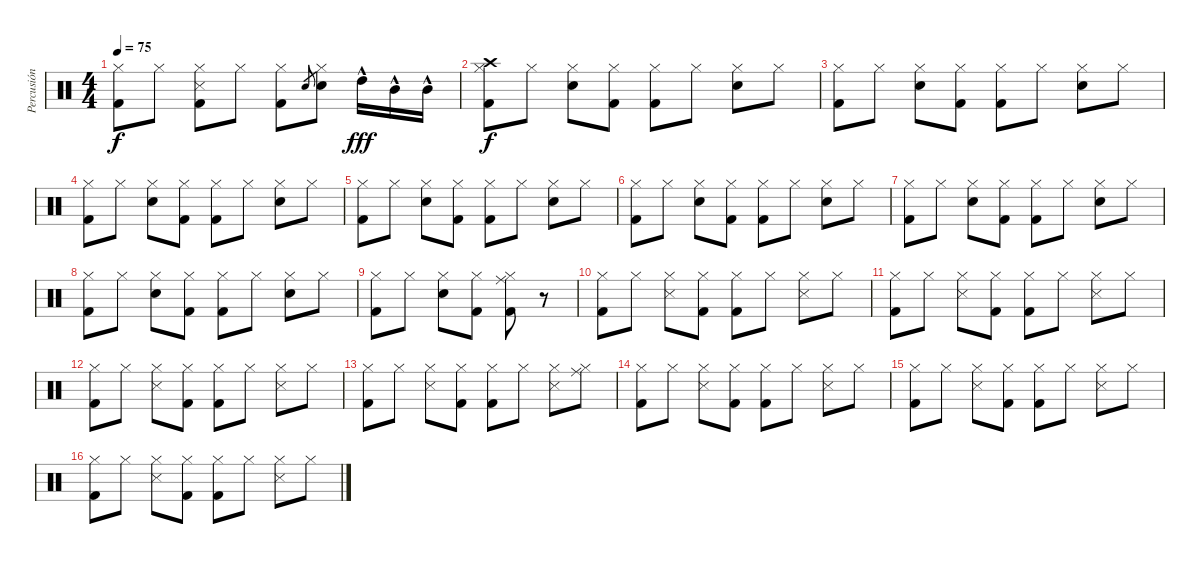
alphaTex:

\track ("Percusión" "Percusión") {instrument percussion}
\staff {score}
\articulation defaults
\ts (4 4)
\tempo 75
\clef neutral
\ks c
("Hi-Hat (closed)" "Kick (hit) 2").8{dy f} "Hi-Hat (closed)".8 ("Hi-Hat (closed)" "Snare (side stick) 3" "Kick (hit) 2").8 "Hi-Hat (closed)".8 ("Hi-Hat (closed)" "Kick (hit) 2").8 "Electric Snare (hit)".8{gr} ("Hi-Hat (closed)" "Electric Snare (hit)").8 "High Tom (hit)"{hac}.16{dy fff} "Mid Tom (hit)"{hac}.16 "Mid Tom (hit)"{hac}.16 |
("Hi-Hat (closed)" "Kick (hit) 2" "Crash high (hit)").8{dy f} "Hi-Hat (closed)".8 ("Hi-Hat (closed)" "Electric Snare (hit)").8 ("Hi-Hat (closed)" "Kick (hit) 2").8 ("Hi-Hat (closed)" "Kick (hit) 2").8 "Hi-Hat (closed)".8 ("Hi-Hat (closed)" "Electric Snare (hit)").8 "Hi-Hat (closed)".8 |
("Hi-Hat (closed)" "Kick (hit) 2").8 "Hi-Hat (closed)".8 ("Hi-Hat (closed)" "Electric Snare (hit)").8 ("Hi-Hat (closed)" "Kick (hit) 2").8 ("Hi-Hat (closed)" "Kick (hit) 2").8 "Hi-Hat (closed)".8 ("Hi-Hat (closed)" "Electric Snare (hit)").8 "Hi-Hat (closed)".8 |
("Hi-Hat (closed)" "Kick (hit) 2").8 "Hi-Hat (closed)".8 ("Hi-Hat (closed)" "Electric Snare (hit)").8 ("Hi-Hat (closed)" "Kick (hit) 2").8 ("Hi-Hat (closed)" "Kick (hit) 2").8 "Hi-Hat (closed)".8 ("Hi-Hat (closed)" "Electric Snare (hit)").8 "Hi-Hat (closed)".8 |
("Hi-Hat (closed)" "Kick (hit) 2").8 "Hi-Hat (closed)".8 ("Hi-Hat (closed)" "Electric Snare (hit)").8 ("Hi-Hat (closed)" "Kick (hit) 2").8 ("Hi-Hat (closed)" "Kick (hit) 2").8 "Hi-Hat (closed)".8 ("Hi-Hat (closed)" "Electric Snare (hit)").8 "Hi-Hat (closed)".8 |
("Hi-Hat (closed)" "Kick (hit) 2").8 "Hi-Hat (closed)".8 ("Hi-Hat (closed)" "Electric Snare (hit)").8 ("Hi-Hat (closed)" "Kick (hit) 2").8 ("Hi-Hat (closed)" "Kick (hit) 2").8 "Hi-Hat (closed)".8 ("Hi-Hat (closed)" "Electric Snare (hit)").8 "Hi-Hat (closed)".8 |
("Hi-Hat (closed)" "Kick (hit) 2").8 "Hi-Hat (closed)".8 ("Hi-Hat (closed)" "Electric Snare (hit)").8 ("Hi-Hat (closed)" "Kick (hit) 2").8 ("Hi-Hat (closed)" "Kick (hit) 2").8 "Hi-Hat (closed)".8 ("Hi-Hat (closed)" "Electric Snare (hit)").8 "Hi-Hat (closed)".8 |
("Hi-Hat (closed)" "Kick (hit) 2").8 "Hi-Hat (closed)".8 ("Hi-Hat (closed)" "Electric Snare (hit)").8 ("Hi-Hat (closed)" "Kick (hit) 2").8 ("Hi-Hat (closed)" "Kick (hit) 2").8 "Hi-Hat (closed)".8 ("Hi-Hat (closed)" "Electric Snare (hit)").8 "Hi-Hat (closed)".8 |
("Hi-Hat (closed)" "Kick (hit) 2").8 "Hi-Hat (closed)".8 ("Hi-Hat (closed)" "Electric Snare (hit)").8 ("Hi-Hat (closed)" "Kick (hit) 2").8 ("Ride (middle)" "Hi-Hat (closed)" "Kick (hit) 2").8 r.8 |
("Hi-Hat (closed)" "Kick (hit) 2").8 "Hi-Hat (closed)".8 ("Hi-Hat (closed)" "Snare (side stick) 3").8 ("Hi-Hat (closed)" "Kick (hit) 2").8 ("Hi-Hat (closed)" "Kick (hit) 2").8 "Hi-Hat (closed)".8 ("Hi-Hat (closed)" "Snare (side stick) 3").8 "Hi-Hat (closed)".8 |
("Hi-Hat (closed)" "Kick (hit) 2").8 "Hi-Hat (closed)".8 ("Hi-Hat (closed)" "Snare (side stick) 3").8 ("Hi-Hat (closed)" "Kick (hit) 2").8 ("Hi-Hat (closed)" "Kick (hit) 2").8 "Hi-Hat (closed)".8 ("Hi-Hat (closed)" "Snare (side stick) 3").8 "Hi-Hat (closed)".8 |
("Hi-Hat (closed)" "Kick (hit) 2").8 "Hi-Hat (closed)".8 ("Hi-Hat (closed)" "Snare (side stick) 3").8 ("Hi-Hat (closed)" "Kick (hit) 2").8 ("Hi-Hat (closed)" "Kick (hit) 2").8 "Hi-Hat (closed)".8 ("Hi-Hat (closed)" "Snare (side stick) 3").8 "Hi-Hat (closed)".8 |
("Hi-Hat (closed)" "Kick (hit) 2").8 "Hi-Hat (closed)".8 ("Hi-Hat (closed)" "Snare (side stick) 3").8 ("Hi-Hat (closed)" "Kick (hit) 2").8 ("Hi-Hat (closed)" "Kick (hit) 2").8 "Hi-Hat (closed)".8 ("Hi-Hat (closed)" "Snare (side stick) 3").8 ("Hi-Hat (closed)" "Ride (middle)").8 |
("Hi-Hat (closed)" "Kick (hit) 2").8 "Hi-Hat (closed)".8 ("Hi-Hat (closed)" "Snare (side stick) 3").8 ("Hi-Hat (closed)" "Kick (hit) 2").8 ("Hi-Hat (closed)" "Kick (hit) 2").8 "Hi-Hat (closed)".8 ("Hi-Hat (closed)" "Snare (side stick) 3").8 "Hi-Hat (closed)".8 |
("Hi-Hat (closed)" "Kick (hit) 2").8 "Hi-Hat (closed)".8 ("Hi-Hat (closed)" "Snare (side stick) 3").8 ("Hi-Hat (closed)" "Kick (hit) 2").8 ("Hi-Hat (closed)" "Kick (hit) 2").8 "Hi-Hat (closed)".8 ("Hi-Hat (closed)" "Snare (side stick) 3").8 "Hi-Hat (closed)".8 |
("Hi-Hat (closed)" "Kick (hit) 2").8 "Hi-Hat (closed)".8 ("Hi-Hat (closed)" "Snare (side stick) 3").8 ("Hi-Hat (closed)" "Kick (hit) 2").8 ("Hi-Hat (closed)" "Kick (hit) 2").8 "Hi-Hat (closed)".8 ("Hi-Hat (closed)" "Snare (side stick) 3").8 "Hi-Hat (closed)".8
